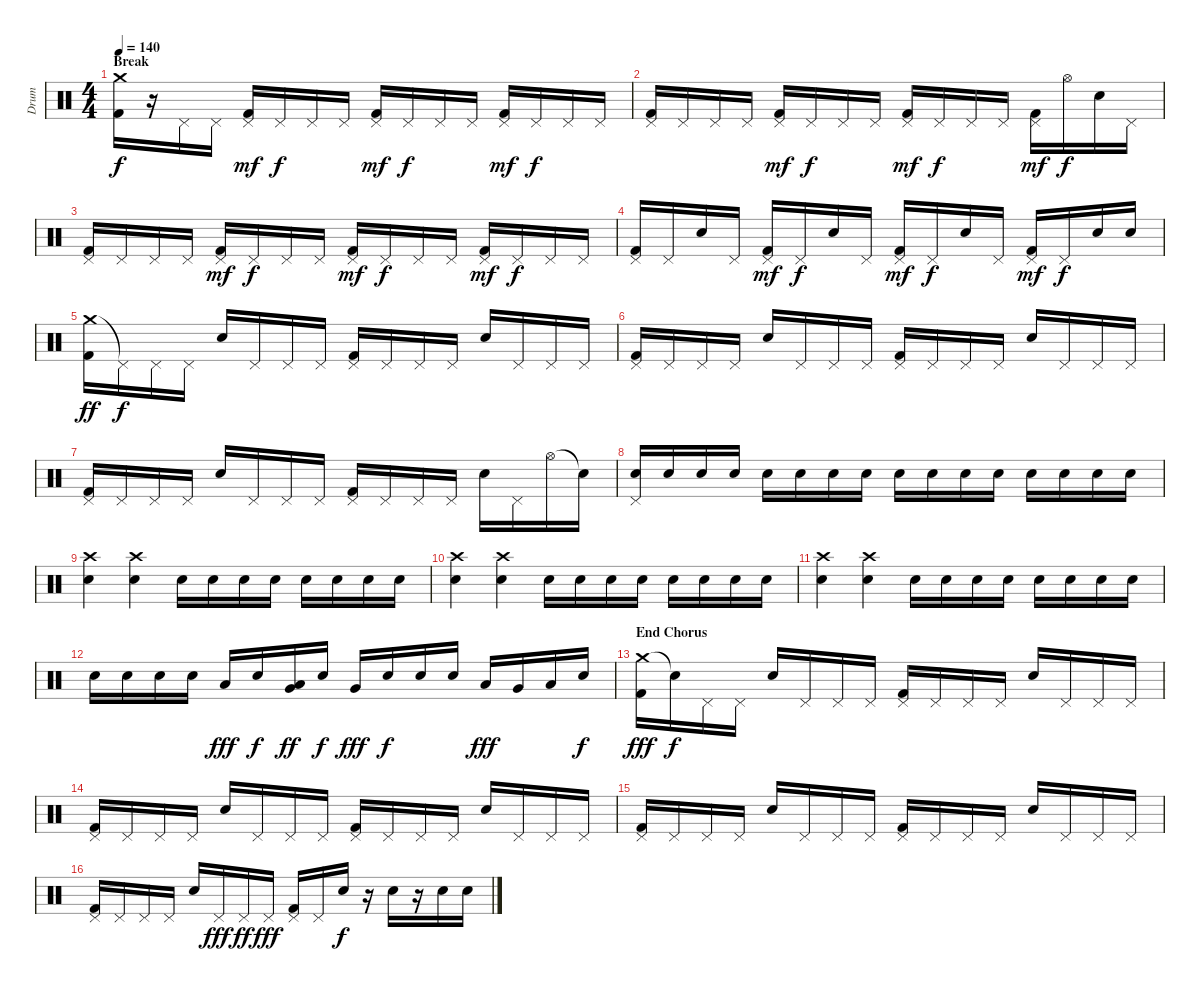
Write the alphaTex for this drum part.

\track ("Drum" "Drum") {instrument percussion}
\staff {score}
\articulation defaults
\ts (4 4)
\section ("" "Break")
\tempo 140
\clef neutral
\ks c
("Crash medium (hit)" "Kick (hit) 2").16{dy f} r.16 "Pedal Hi-Hat (hit)".16 "Pedal Hi-Hat (hit)".16 ("Pedal Hi-Hat (hit)" "Kick (hit) 2").16{dy mf} "Pedal Hi-Hat (hit)".16{dy f} "Pedal Hi-Hat (hit)".16 "Pedal Hi-Hat (hit)".16 ("Pedal Hi-Hat (hit)" "Kick (hit) 2").16{dy mf} "Pedal Hi-Hat (hit)".16{dy f} "Pedal Hi-Hat (hit)".16 "Pedal Hi-Hat (hit)".16 ("Pedal Hi-Hat (hit)" "Kick (hit) 2").16{dy mf} "Pedal Hi-Hat (hit)".16{dy f} "Pedal Hi-Hat (hit)".16 "Pedal Hi-Hat (hit)".16 |
("Pedal Hi-Hat (hit)" "Kick (hit) 2").16 "Pedal Hi-Hat (hit)".16 "Pedal Hi-Hat (hit)".16 "Pedal Hi-Hat (hit)".16 ("Pedal Hi-Hat (hit)" "Kick (hit) 2").16{dy mf} "Pedal Hi-Hat (hit)".16{dy f} "Pedal Hi-Hat (hit)".16 "Pedal Hi-Hat (hit)".16 ("Pedal Hi-Hat (hit)" "Kick (hit) 2").16{dy mf} "Pedal Hi-Hat (hit)".16{dy f} "Pedal Hi-Hat (hit)".16 "Pedal Hi-Hat (hit)".16 ("Pedal Hi-Hat (hit)" "Kick (hit) 2").16{dy mf} "Hi-Hat (open)".16{dy f} "Snare (hit) 2".16 "Pedal Hi-Hat (hit)".16 |
("Pedal Hi-Hat (hit)" "Kick (hit) 2").16 "Pedal Hi-Hat (hit)".16 "Pedal Hi-Hat (hit)".16 "Pedal Hi-Hat (hit)".16 ("Pedal Hi-Hat (hit)" "Kick (hit) 2").16{dy mf} "Pedal Hi-Hat (hit)".16{dy f} "Pedal Hi-Hat (hit)".16 "Pedal Hi-Hat (hit)".16 ("Pedal Hi-Hat (hit)" "Kick (hit) 2").16{dy mf} "Pedal Hi-Hat (hit)".16{dy f} "Pedal Hi-Hat (hit)".16 "Pedal Hi-Hat (hit)".16 ("Pedal Hi-Hat (hit)" "Kick (hit) 2").16{dy mf} "Pedal Hi-Hat (hit)".16{dy f} "Pedal Hi-Hat (hit)".16 "Pedal Hi-Hat (hit)".16 |
("Pedal Hi-Hat (hit)" "Kick (hit) 2").16 "Pedal Hi-Hat (hit)".16 "Snare (hit) 2".16 "Pedal Hi-Hat (hit)".16 ("Pedal Hi-Hat (hit)" "Kick (hit) 2").16{dy mf} "Pedal Hi-Hat (hit)".16{dy f} "Snare (hit) 2".16 "Pedal Hi-Hat (hit)".16 ("Pedal Hi-Hat (hit)" "Kick (hit) 2").16{dy mf} "Pedal Hi-Hat (hit)".16{dy f} "Snare (hit) 2".16 "Pedal Hi-Hat (hit)".16 ("Pedal Hi-Hat (hit)" "Kick (hit) 2").16{dy mf} "Pedal Hi-Hat (hit)".16{dy f} "Snare (hit) 2".16 "Snare (hit) 2".16 |
("Crash medium (hit)" "Kick (hit) 2").16{dy ff} "Pedal Hi-Hat (hit)"{t}.16{dy f} "Pedal Hi-Hat (hit)".16 "Pedal Hi-Hat (hit)".16 "Snare (hit) 2".16 "Pedal Hi-Hat (hit)".16 "Pedal Hi-Hat (hit)".16 "Pedal Hi-Hat (hit)".16 ("Pedal Hi-Hat (hit)" "Kick (hit) 2").16 "Pedal Hi-Hat (hit)".16 "Pedal Hi-Hat (hit)".16 "Pedal Hi-Hat (hit)".16 "Snare (hit) 2".16 "Pedal Hi-Hat (hit)".16 "Pedal Hi-Hat (hit)".16 "Pedal Hi-Hat (hit)".16 |
("Pedal Hi-Hat (hit)" "Kick (hit) 2").16 "Pedal Hi-Hat (hit)".16 "Pedal Hi-Hat (hit)".16 "Pedal Hi-Hat (hit)".16 "Snare (hit) 2".16 "Pedal Hi-Hat (hit)".16 "Pedal Hi-Hat (hit)".16 "Pedal Hi-Hat (hit)".16 ("Pedal Hi-Hat (hit)" "Kick (hit) 2").16 "Pedal Hi-Hat (hit)".16 "Pedal Hi-Hat (hit)".16 "Pedal Hi-Hat (hit)".16 "Snare (hit) 2".16 "Pedal Hi-Hat (hit)".16 "Pedal Hi-Hat (hit)".16 "Pedal Hi-Hat (hit)".16 |
("Pedal Hi-Hat (hit)" "Kick (hit) 2").16 "Pedal Hi-Hat (hit)".16 "Pedal Hi-Hat (hit)".16 "Pedal Hi-Hat (hit)".16 "Snare (hit) 2".16 "Pedal Hi-Hat (hit)".16 "Pedal Hi-Hat (hit)".16 "Pedal Hi-Hat (hit)".16 ("Pedal Hi-Hat (hit)" "Kick (hit) 2").16 "Pedal Hi-Hat (hit)".16 "Pedal Hi-Hat (hit)".16 "Pedal Hi-Hat (hit)".16 "Snare (hit) 2".16 "Pedal Hi-Hat (hit)".16 "Hi-Hat (open)".16 "Snare (hit)"{t}.16 |
("Pedal Hi-Hat (hit)" "Snare (hit) 2").16 "Snare (hit) 2".16 "Snare (hit) 2".16 "Snare (hit) 2".16 "Snare (hit) 2".16 "Snare (hit) 2".16 "Snare (hit) 2".16 "Snare (hit) 2".16 "Snare (hit) 2".16 "Snare (hit) 2".16 "Snare (hit) 2".16 "Snare (hit) 2".16 "Snare (hit) 2".16 "Snare (hit) 2".16 "Snare (hit) 2".16 "Snare (hit) 2".16 |
("Crash high (hit)" "Snare (hit) 2").4 ("Crash high (hit)" "Snare (hit) 2").4 "Snare (hit) 2".16 "Snare (hit) 2".16 "Snare (hit) 2".16 "Snare (hit) 2".16 "Snare (hit) 2".16 "Snare (hit) 2".16 "Snare (hit) 2".16 "Snare (hit) 2".16 |
("Crash high (hit)" "Snare (hit) 2").4 ("Crash high (hit)" "Snare (hit) 2").4 "Snare (hit) 2".16 "Snare (hit) 2".16 "Snare (hit) 2".16 "Snare (hit) 2".16 "Snare (hit) 2".16 "Snare (hit) 2".16 "Snare (hit) 2".16 "Snare (hit) 2".16 |
("Crash high (hit)" "Snare (hit) 2").4 ("Crash high (hit)" "Snare (hit) 2").4 "Snare (hit) 2".16 "Snare (hit) 2".16 "Snare (hit) 2".16 "Snare (hit) 2".16 "Snare (hit) 2".16 "Snare (hit) 2".16 "Snare (hit) 2".16 "Snare (hit) 2".16 |
"Snare (hit) 2".16 "Snare (hit) 2".16 "Snare (hit) 2".16 "Snare (hit) 2".16 "Low Tom (hit)".16{dy fff} "Snare (hit) 2".16{dy f} ("Low Tom (hit)" "Very Low Tom (hit)").16{dy ff} "Snare (hit) 2".16{dy f} "Very Low Tom (hit)".16{dy fff} "Snare (hit) 2".16{dy f} "Snare (hit) 2".16 "Snare (hit) 2".16 "Low Tom (hit)".16{dy fff} "Very Low Tom (hit)".16 "Low Tom (hit)".16 "Snare (hit) 2".16{dy f} |
\section ("" "End Chorus")
("Crash medium (hit)" "Kick (hit) 2").16{dy fff} "Snare (hit)"{t}.16{dy f} "Pedal Hi-Hat (hit)".16 "Pedal Hi-Hat (hit)".16 "Snare (hit) 2".16 "Pedal Hi-Hat (hit)".16 "Pedal Hi-Hat (hit)".16 "Pedal Hi-Hat (hit)".16 ("Pedal Hi-Hat (hit)" "Kick (hit) 2").16 "Pedal Hi-Hat (hit)".16 "Pedal Hi-Hat (hit)".16 "Pedal Hi-Hat (hit)".16 "Snare (hit) 2".16 "Pedal Hi-Hat (hit)".16 "Pedal Hi-Hat (hit)".16 "Pedal Hi-Hat (hit)".16 |
("Pedal Hi-Hat (hit)" "Kick (hit) 2").16 "Pedal Hi-Hat (hit)".16 "Pedal Hi-Hat (hit)".16 "Pedal Hi-Hat (hit)".16 "Snare (hit) 2".16 "Pedal Hi-Hat (hit)".16 "Pedal Hi-Hat (hit)".16 "Pedal Hi-Hat (hit)".16 ("Pedal Hi-Hat (hit)" "Kick (hit) 2").16 "Pedal Hi-Hat (hit)".16 "Pedal Hi-Hat (hit)".16 "Pedal Hi-Hat (hit)".16 "Snare (hit) 2".16 "Pedal Hi-Hat (hit)".16 "Pedal Hi-Hat (hit)".16 "Pedal Hi-Hat (hit)".16 |
("Pedal Hi-Hat (hit)" "Kick (hit) 2").16 "Pedal Hi-Hat (hit)".16 "Pedal Hi-Hat (hit)".16 "Pedal Hi-Hat (hit)".16 "Snare (hit) 2".16 "Pedal Hi-Hat (hit)".16 "Pedal Hi-Hat (hit)".16 "Pedal Hi-Hat (hit)".16 ("Pedal Hi-Hat (hit)" "Kick (hit) 2").16 "Pedal Hi-Hat (hit)".16 "Pedal Hi-Hat (hit)".16 "Pedal Hi-Hat (hit)".16 "Snare (hit) 2".16 "Pedal Hi-Hat (hit)".16 "Pedal Hi-Hat (hit)".16 "Pedal Hi-Hat (hit)".16 |
("Pedal Hi-Hat (hit)" "Kick (hit) 2").16 "Pedal Hi-Hat (hit)".16 "Pedal Hi-Hat (hit)".16 "Pedal Hi-Hat (hit)".16 "Snare (hit) 2".16 "Pedal Hi-Hat (hit)".16{dy fff} "Pedal Hi-Hat (hit)".16{dy ff} "Pedal Hi-Hat (hit)".16{dy fff} ("Pedal Hi-Hat (hit)" "Kick (hit) 2").16 "Pedal Hi-Hat (hit)".16 "Snare (hit) 2".16{dy f} r.16 "Snare (hit) 2".16 r.16 "Snare (hit) 2".16 "Snare (hit) 2".16
